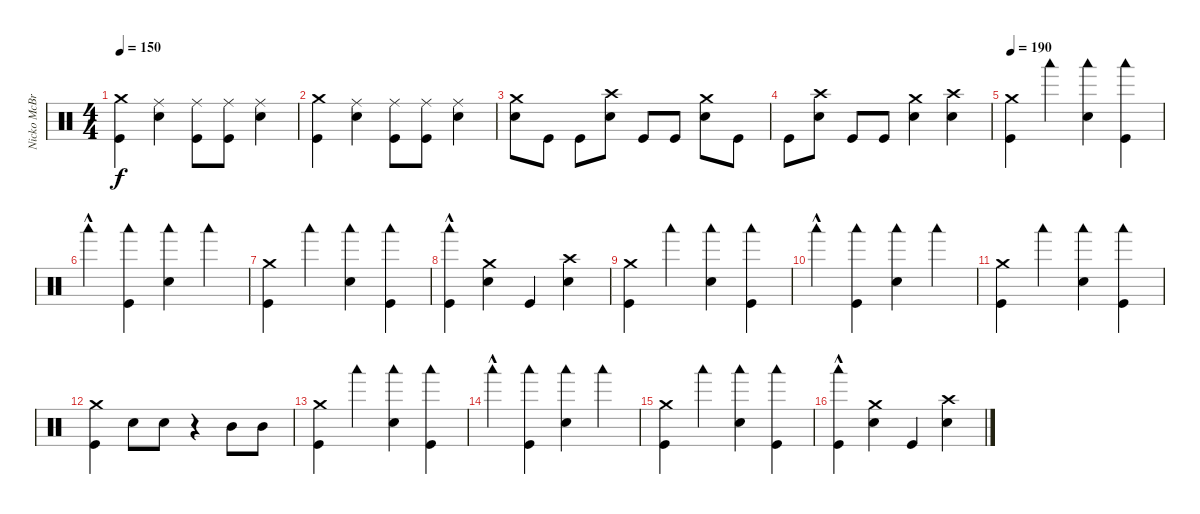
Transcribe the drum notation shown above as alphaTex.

\track ("Nicko McBrain" "Nicko McBr") {instrument percussion}
\staff {score}
\articulation defaults
\ts (4 4)
\tempo 150
\clef neutral
\ks c
("Kick (hit)" "Crash medium (hit)").4{dy f} ("Electric Snare (hit)" "Ride (middle)").4 ("Kick (hit)" "Ride (middle)").8 ("Kick (hit)" "Ride (middle)").8 ("Electric Snare (hit)" "Ride (middle)").4 |
("Kick (hit)" "Crash medium (hit)").4 ("Electric Snare (hit)" "Ride (middle)").4 ("Kick (hit)" "Ride (middle)").8 ("Kick (hit)" "Ride (middle)").8 ("Electric Snare (hit)" "Ride (middle)").4 |
("Electric Snare (hit)" "Crash medium (hit)").8 "Kick (hit)".8 "Kick (hit)".8 ("Electric Snare (hit)" "Crash high (hit)").8 "Kick (hit)".8 "Kick (hit)".8 ("Electric Snare (hit)" "Crash medium (hit)").8 "Kick (hit)".8 |
"Kick (hit)".8 ("Electric Snare (hit)" "Crash high (hit)").8 "Kick (hit)".8 "Kick (hit)".8 ("Electric Snare (hit)" "Crash medium (hit)").4 ("Electric Snare (hit)" "Crash high (hit)").4 |
\tempo 190
("Crash medium (hit)" "Kick (hit)").4 "Woodblock low (hit)".4 ("Woodblock low (hit)" "Electric Snare (hit)").4 ("Woodblock low (hit)" "Kick (hit)").4 |
"Woodblock low (hit)"{hac}.4 ("Woodblock low (hit)" "Kick (hit)").4 ("Woodblock low (hit)" "Electric Snare (hit)").4 "Woodblock low (hit)".4 |
("Crash medium (hit)" "Kick (hit)").4 "Woodblock low (hit)".4 ("Woodblock low (hit)" "Electric Snare (hit)").4 ("Woodblock low (hit)" "Kick (hit)").4 |
("Woodblock low (hit)"{hac} "Kick (hit)").4 ("Crash medium (hit)" "Electric Snare (hit)").4 "Kick (hit)".4 ("Crash high (hit)" "Electric Snare (hit)").4 |
("Crash medium (hit)" "Kick (hit)").4 "Woodblock low (hit)".4 ("Woodblock low (hit)" "Electric Snare (hit)").4 ("Woodblock low (hit)" "Kick (hit)").4 |
"Woodblock low (hit)"{hac}.4 ("Woodblock low (hit)" "Kick (hit)").4 ("Woodblock low (hit)" "Electric Snare (hit)").4 "Woodblock low (hit)".4 |
("Crash medium (hit)" "Kick (hit)").4 "Woodblock low (hit)".4 ("Woodblock low (hit)" "Electric Snare (hit)").4 ("Woodblock low (hit)" "Kick (hit)").4 |
("Crash medium (hit)" "Kick (hit)").4 "Electric Snare (hit)".8 "Electric Snare (hit)".8 r.4 "Mid Tom (hit)".8 "Mid Tom (hit)".8 |
("Crash medium (hit)" "Kick (hit)").4 "Woodblock low (hit)".4 ("Woodblock low (hit)" "Electric Snare (hit)").4 ("Woodblock low (hit)" "Kick (hit)").4 |
"Woodblock low (hit)"{hac}.4 ("Woodblock low (hit)" "Kick (hit)").4 ("Woodblock low (hit)" "Electric Snare (hit)").4 "Woodblock low (hit)".4 |
("Crash medium (hit)" "Kick (hit)").4 "Woodblock low (hit)".4 ("Woodblock low (hit)" "Electric Snare (hit)").4 ("Woodblock low (hit)" "Kick (hit)").4 |
("Woodblock low (hit)"{hac} "Kick (hit)").4 ("Crash medium (hit)" "Electric Snare (hit)").4 "Kick (hit)".4 ("Crash high (hit)" "Electric Snare (hit)").4
